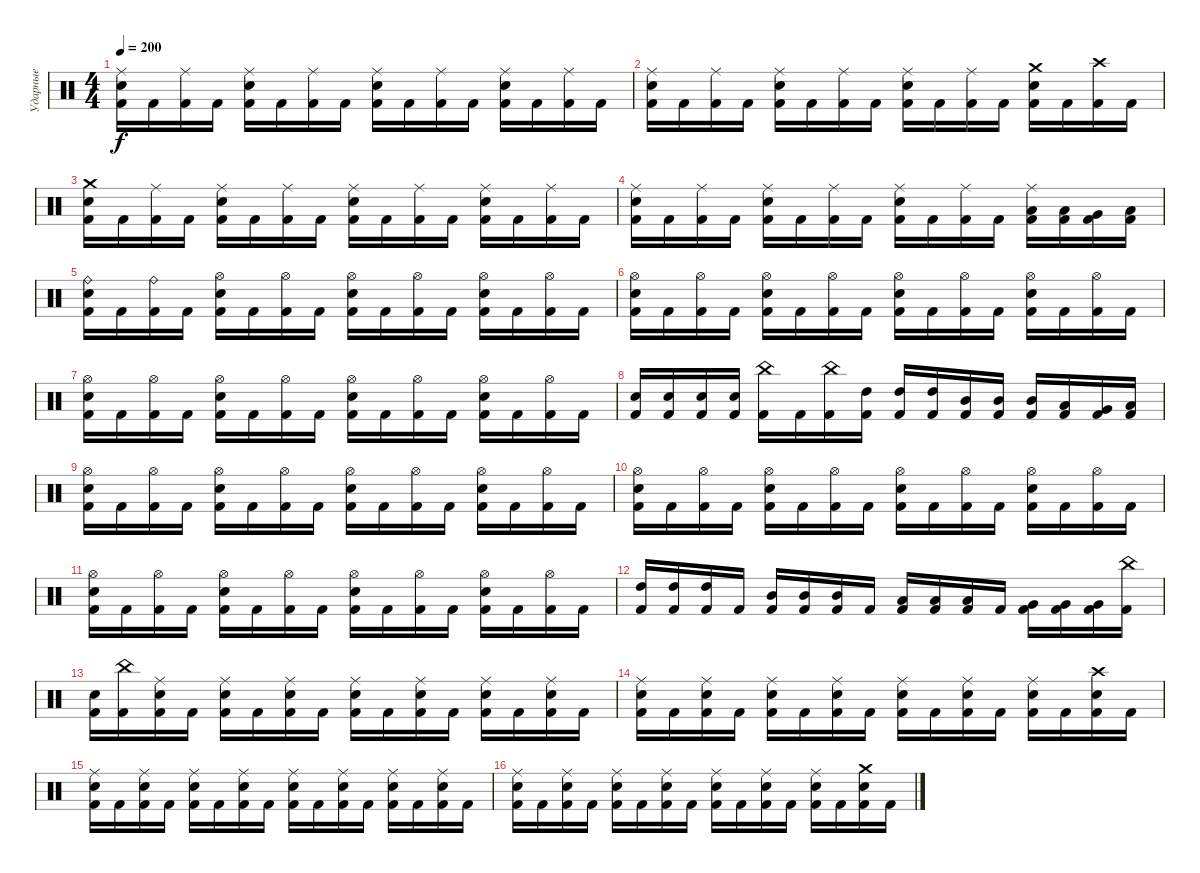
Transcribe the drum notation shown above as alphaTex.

\track ("Ударные" "Ударные") {instrument percussion}
\staff {score}
\articulation defaults
\ts (4 4)
\tempo 200
\clef neutral
\ks c
("Ride (middle)" "Snare (hit) 2" "Kick (hit) 2").16{dy f} "Kick (hit) 2".16 ("Ride (middle)" "Kick (hit) 2").16 "Kick (hit) 2".16 ("Ride (middle)" "Snare (hit) 2" "Kick (hit) 2").16 "Kick (hit) 2".16 ("Ride (middle)" "Kick (hit) 2").16 "Kick (hit) 2".16 ("Ride (middle)" "Snare (hit) 2" "Kick (hit) 2").16 "Kick (hit) 2".16 ("Ride (middle)" "Kick (hit) 2").16 "Kick (hit) 2".16 ("Ride (middle)" "Snare (hit) 2" "Kick (hit) 2").16 "Kick (hit) 2".16 ("Ride (middle)" "Kick (hit) 2").16 "Kick (hit) 2".16 |
("Ride (middle)" "Snare (hit) 2" "Kick (hit) 2").16 "Kick (hit) 2".16 ("Ride (middle)" "Kick (hit) 2").16 "Kick (hit) 2".16 ("Ride (middle)" "Snare (hit) 2" "Kick (hit) 2").16 "Kick (hit) 2".16 ("Ride (middle)" "Kick (hit) 2").16 "Kick (hit) 2".16 ("Ride (middle)" "Snare (hit) 2" "Kick (hit) 2").16 "Kick (hit) 2".16 ("Ride (middle)" "Kick (hit) 2").16 "Kick (hit) 2".16 ("Crash medium (hit)" "Snare (hit) 2" "Kick (hit) 2").16 "Kick (hit) 2".16 ("Crash high (hit)" "Kick (hit) 2").16 "Kick (hit) 2".16 |
("Crash medium (hit)" "Snare (hit) 2" "Kick (hit) 2").16 "Kick (hit) 2".16 ("Ride (middle)" "Kick (hit) 2").16 "Kick (hit) 2".16 ("Ride (middle)" "Snare (hit) 2" "Kick (hit) 2").16 "Kick (hit) 2".16 ("Ride (middle)" "Kick (hit) 2").16 "Kick (hit) 2".16 ("Ride (middle)" "Snare (hit) 2" "Kick (hit) 2").16 "Kick (hit) 2".16 ("Ride (middle)" "Kick (hit) 2").16 "Kick (hit) 2".16 ("Ride (middle)" "Snare (hit) 2" "Kick (hit) 2").16 "Kick (hit) 2".16 ("Ride (middle)" "Kick (hit) 2").16 "Kick (hit) 2".16 |
("Ride (middle)" "Snare (hit) 2" "Kick (hit) 2").16 "Kick (hit) 2".16 ("Ride (middle)" "Kick (hit) 2").16 "Kick (hit) 2".16 ("Ride (middle)" "Snare (hit) 2" "Kick (hit) 2").16 "Kick (hit) 2".16 ("Ride (middle)" "Kick (hit) 2").16 "Kick (hit) 2".16 ("Ride (middle)" "Snare (hit) 2" "Kick (hit) 2").16 "Kick (hit) 2".16 ("Ride (middle)" "Kick (hit) 2").16 "Kick (hit) 2".16 ("Ride (middle)" "Low Tom (hit)" "Kick (hit) 2").16 ("Low Tom (hit)" "Kick (hit) 2").16 ("Very Low Tom (hit)" "Kick (hit) 2").16 ("Low Floor Tom (hit)" "Kick (hit) 2").16 |
("Ride (bell)" "Snare (hit) 2" "Kick (hit) 2").16 "Kick (hit) 2".16 ("Ride (bell)" "Kick (hit) 2").16 "Kick (hit) 2".16 ("Hi-Hat (open)" "Snare (hit) 2" "Kick (hit) 2").16 "Kick (hit) 2".16 ("Hi-Hat (open)" "Kick (hit) 2").16 "Kick (hit) 2".16 ("Hi-Hat (open)" "Snare (hit) 2" "Kick (hit) 2").16 "Kick (hit) 2".16 ("Hi-Hat (open)" "Kick (hit) 2").16 "Kick (hit) 2".16 ("Hi-Hat (open)" "Snare (hit) 2" "Kick (hit) 2").16 "Kick (hit) 2".16 ("Hi-Hat (open)" "Kick (hit) 2").16 "Kick (hit) 2".16 |
("Hi-Hat (open)" "Snare (hit) 2" "Kick (hit) 2").16 "Kick (hit) 2".16 ("Hi-Hat (open)" "Kick (hit) 2").16 "Kick (hit) 2".16 ("Hi-Hat (open)" "Snare (hit) 2" "Kick (hit) 2").16 "Kick (hit) 2".16 ("Hi-Hat (open)" "Kick (hit) 2").16 "Kick (hit) 2".16 ("Hi-Hat (open)" "Snare (hit) 2" "Kick (hit) 2").16 "Kick (hit) 2".16 ("Hi-Hat (open)" "Kick (hit) 2").16 "Kick (hit) 2".16 ("Hi-Hat (open)" "Snare (hit) 2" "Kick (hit) 2").16 "Kick (hit) 2".16 ("Hi-Hat (open)" "Kick (hit) 2").16 "Kick (hit) 2".16 |
("Hi-Hat (open)" "Snare (hit) 2" "Kick (hit) 2").16 "Kick (hit) 2".16 ("Hi-Hat (open)" "Kick (hit) 2").16 "Kick (hit) 2".16 ("Hi-Hat (open)" "Snare (hit) 2" "Kick (hit) 2").16 "Kick (hit) 2".16 ("Hi-Hat (open)" "Kick (hit) 2").16 "Kick (hit) 2".16 ("Hi-Hat (open)" "Snare (hit) 2" "Kick (hit) 2").16 "Kick (hit) 2".16 ("Hi-Hat (open)" "Kick (hit) 2").16 "Kick (hit) 2".16 ("Hi-Hat (open)" "Snare (hit) 2" "Kick (hit) 2").16 "Kick (hit) 2".16 ("Hi-Hat (open)" "Kick (hit) 2").16 "Kick (hit) 2".16 |
("Snare (hit) 2" "Kick (hit) 2").16 ("Snare (hit) 2" "Kick (hit) 2").16 ("Snare (hit) 2" "Kick (hit) 2").16 ("Snare (hit) 2" "Kick (hit) 2").16 ("China (hit)" "Kick (hit) 2").16 "Kick (hit) 2".16 ("China (hit)" "Kick (hit) 2").16 ("High Tom (hit)" "Kick (hit) 2").16 ("High Tom (hit)" "Kick (hit) 2").16 ("High Tom (hit)" "Kick (hit) 2").16 ("Mid Tom (hit)" "Kick (hit) 2").16 ("Mid Tom (hit)" "Kick (hit) 2").16 ("Mid Tom (hit)" "Kick (hit) 2").16 ("Low Tom (hit)" "Kick (hit) 2").16 ("Very Low Tom (hit)" "Kick (hit) 2").16 ("Low Floor Tom (hit)" "Kick (hit) 2").16 |
("Hi-Hat (open)" "Snare (hit) 2" "Kick (hit) 2").16 "Kick (hit) 2".16 ("Hi-Hat (open)" "Kick (hit) 2").16 "Kick (hit) 2".16 ("Hi-Hat (open)" "Snare (hit) 2" "Kick (hit) 2").16 "Kick (hit) 2".16 ("Hi-Hat (open)" "Kick (hit) 2").16 "Kick (hit) 2".16 ("Hi-Hat (open)" "Snare (hit) 2" "Kick (hit) 2").16 "Kick (hit) 2".16 ("Hi-Hat (open)" "Kick (hit) 2").16 "Kick (hit) 2".16 ("Hi-Hat (open)" "Snare (hit) 2" "Kick (hit) 2").16 "Kick (hit) 2".16 ("Hi-Hat (open)" "Kick (hit) 2").16 "Kick (hit) 2".16 |
("Hi-Hat (open)" "Snare (hit) 2" "Kick (hit) 2").16 "Kick (hit) 2".16 ("Hi-Hat (open)" "Kick (hit) 2").16 "Kick (hit) 2".16 ("Hi-Hat (open)" "Snare (hit) 2" "Kick (hit) 2").16 "Kick (hit) 2".16 ("Hi-Hat (open)" "Kick (hit) 2").16 "Kick (hit) 2".16 ("Hi-Hat (open)" "Snare (hit) 2" "Kick (hit) 2").16 "Kick (hit) 2".16 ("Hi-Hat (open)" "Kick (hit) 2").16 "Kick (hit) 2".16 ("Hi-Hat (open)" "Snare (hit) 2" "Kick (hit) 2").16 "Kick (hit) 2".16 ("Hi-Hat (open)" "Kick (hit) 2").16 "Kick (hit) 2".16 |
("Hi-Hat (open)" "Snare (hit) 2" "Kick (hit) 2").16 "Kick (hit) 2".16 ("Hi-Hat (open)" "Kick (hit) 2").16 "Kick (hit) 2".16 ("Hi-Hat (open)" "Snare (hit) 2" "Kick (hit) 2").16 "Kick (hit) 2".16 ("Hi-Hat (open)" "Kick (hit) 2").16 "Kick (hit) 2".16 ("Hi-Hat (open)" "Snare (hit) 2" "Kick (hit) 2").16 "Kick (hit) 2".16 ("Hi-Hat (open)" "Kick (hit) 2").16 "Kick (hit) 2".16 ("Hi-Hat (open)" "Snare (hit) 2" "Kick (hit) 2").16 "Kick (hit) 2".16 ("Hi-Hat (open)" "Kick (hit) 2").16 "Kick (hit) 2".16 |
("High Tom (hit)" "Kick (hit) 2").16 ("High Tom (hit)" "Kick (hit) 2").16 ("High Tom (hit)" "Kick (hit) 2").16 "Kick (hit) 2".16 ("Mid Tom (hit)" "Kick (hit) 2").16 ("Mid Tom (hit)" "Kick (hit) 2").16 ("Mid Tom (hit)" "Kick (hit) 2").16 "Kick (hit) 2".16 ("Low Tom (hit)" "Kick (hit) 2").16 ("Low Tom (hit)" "Kick (hit) 2").16 ("Low Tom (hit)" "Kick (hit) 2").16 "Kick (hit) 2".16 ("Very Low Tom (hit)" "Kick (hit) 2").16 ("Very Low Tom (hit)" "Kick (hit) 2").16 ("Very Low Tom (hit)" "Kick (hit) 2").16 ("China (hit)" "Kick (hit) 2").16 |
("Snare (hit) 2" "Kick (hit) 2").16 ("China (hit)" "Kick (hit) 2").16 ("Ride (middle)" "Snare (hit) 2" "Kick (hit) 2").16 "Kick (hit) 2".16 ("Ride (middle)" "Snare (hit) 2" "Kick (hit) 2").16 "Kick (hit) 2".16 ("Ride (middle)" "Snare (hit) 2" "Kick (hit) 2").16 "Kick (hit) 2".16 ("Ride (middle)" "Snare (hit) 2" "Kick (hit) 2").16 "Kick (hit) 2".16 ("Ride (middle)" "Snare (hit) 2" "Kick (hit) 2").16 "Kick (hit) 2".16 ("Ride (middle)" "Snare (hit) 2" "Kick (hit) 2").16 "Kick (hit) 2".16 ("Ride (middle)" "Snare (hit) 2" "Kick (hit) 2").16 "Kick (hit) 2".16 |
("Ride (middle)" "Snare (hit) 2" "Kick (hit) 2").16 "Kick (hit) 2".16 ("Ride (middle)" "Snare (hit) 2" "Kick (hit) 2").16 "Kick (hit) 2".16 ("Ride (middle)" "Snare (hit) 2" "Kick (hit) 2").16 "Kick (hit) 2".16 ("Ride (middle)" "Snare (hit) 2" "Kick (hit) 2").16 "Kick (hit) 2".16 ("Ride (middle)" "Snare (hit) 2" "Kick (hit) 2").16 "Kick (hit) 2".16 ("Ride (middle)" "Snare (hit) 2" "Kick (hit) 2").16 "Kick (hit) 2".16 ("Ride (middle)" "Snare (hit) 2" "Kick (hit) 2").16 "Kick (hit) 2".16 ("Crash high (hit)" "Snare (hit) 2" "Kick (hit) 2").16 "Kick (hit) 2".16 |
("Ride (middle)" "Snare (hit) 2" "Kick (hit) 2").16 "Kick (hit) 2".16 ("Ride (middle)" "Snare (hit) 2" "Kick (hit) 2").16 "Kick (hit) 2".16 ("Ride (middle)" "Snare (hit) 2" "Kick (hit) 2").16 "Kick (hit) 2".16 ("Ride (middle)" "Snare (hit) 2" "Kick (hit) 2").16 "Kick (hit) 2".16 ("Ride (middle)" "Snare (hit) 2" "Kick (hit) 2").16 "Kick (hit) 2".16 ("Ride (middle)" "Snare (hit) 2" "Kick (hit) 2").16 "Kick (hit) 2".16 ("Ride (middle)" "Snare (hit) 2" "Kick (hit) 2").16 "Kick (hit) 2".16 ("Ride (middle)" "Snare (hit) 2" "Kick (hit) 2").16 "Kick (hit) 2".16 |
("Ride (middle)" "Snare (hit) 2" "Kick (hit) 2").16 "Kick (hit) 2".16 ("Ride (middle)" "Snare (hit) 2" "Kick (hit) 2").16 "Kick (hit) 2".16 ("Ride (middle)" "Snare (hit) 2" "Kick (hit) 2").16 "Kick (hit) 2".16 ("Ride (middle)" "Snare (hit) 2" "Kick (hit) 2").16 "Kick (hit) 2".16 ("Ride (middle)" "Snare (hit) 2" "Kick (hit) 2").16 "Kick (hit) 2".16 ("Ride (middle)" "Snare (hit) 2" "Kick (hit) 2").16 "Kick (hit) 2".16 ("Ride (middle)" "Snare (hit) 2" "Kick (hit) 2").16 "Kick (hit) 2".16 ("Crash medium (hit)" "Snare (hit) 2" "Kick (hit) 2").16 "Kick (hit) 2".16
